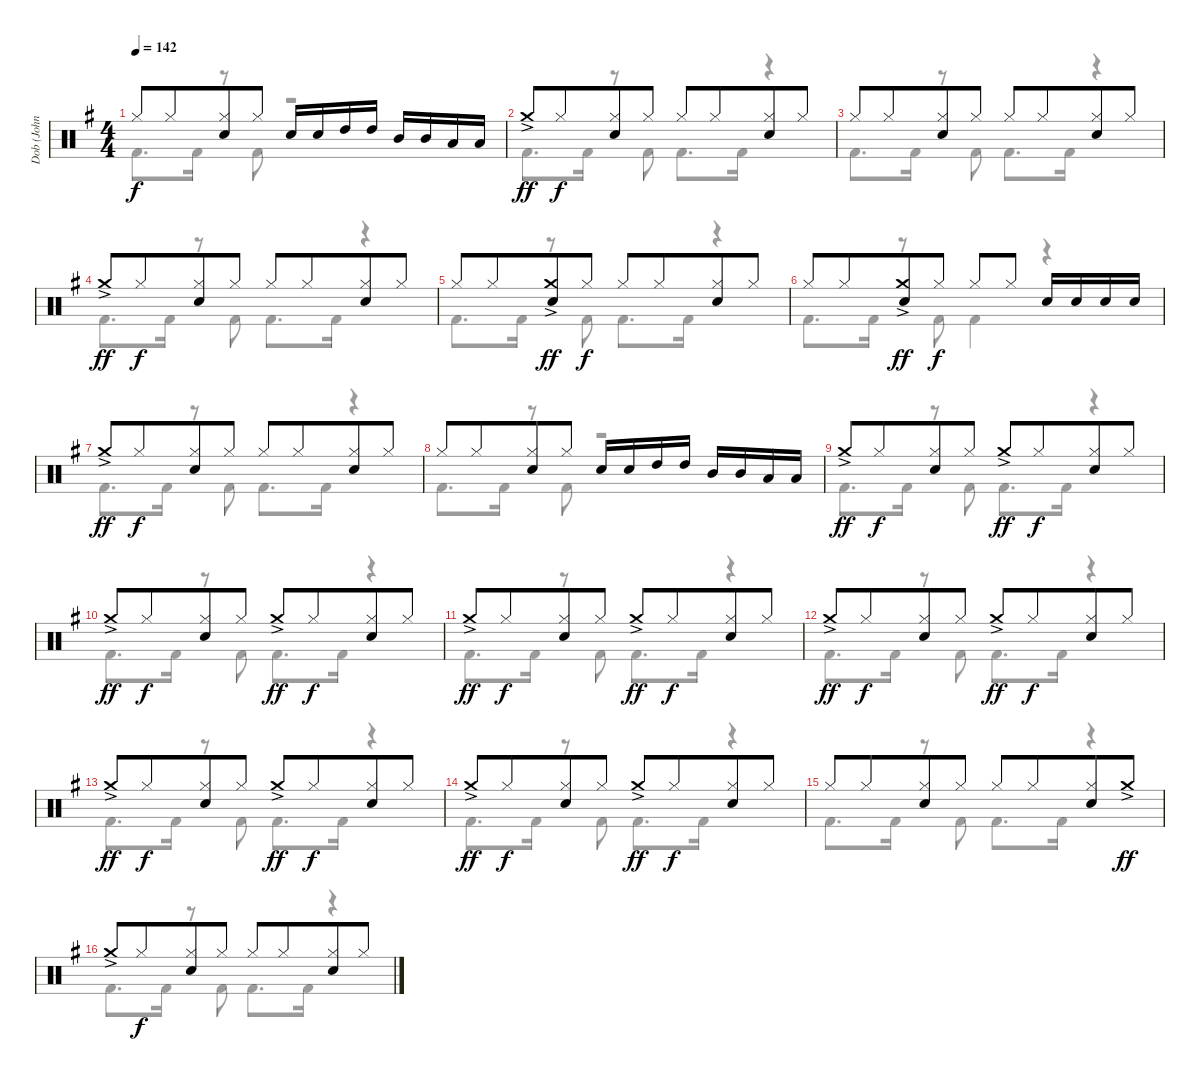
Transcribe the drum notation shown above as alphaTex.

\track ("Dob (John O'Reilly)" "Dob (John ") {instrument percussion}
\staff {score}
\articulation defaults
\voice
\ts (4 4)
\tempo 142
\clef neutral
\ks g "Hi-Hat (closed)".8{dy f} "Hi-Hat (closed)".8{beam merge}
("Hi-Hat (closed)" "Electric Snare (hit)").8 "Hi-Hat (closed)".8 "Electric Snare (hit)".16 "Electric Snare (hit)".16 "High Tom (hit)".16 "High Tom (hit)".16 "Mid Tom (hit)".16 "Mid Tom (hit)".16 "Low Tom (hit)".16 "Low Tom (hit)".16 |
"Crash medium (hit)"{ac}.8{dy ff} "Hi-Hat (closed)".8{dy f beam merge} ("Hi-Hat (closed)" "Electric Snare (hit)").8 "Hi-Hat (closed)".8 "Hi-Hat (closed)".8 "Hi-Hat (closed)".8{beam merge} ("Hi-Hat (closed)" "Electric Snare (hit)").8 "Hi-Hat (closed)".8 |
"Hi-Hat (closed)".8 "Hi-Hat (closed)".8{beam merge} ("Hi-Hat (closed)" "Electric Snare (hit)").8 "Hi-Hat (closed)".8 "Hi-Hat (closed)".8 "Hi-Hat (closed)".8{beam merge} ("Hi-Hat (closed)" "Electric Snare (hit)").8 "Hi-Hat (closed)".8 |
"Crash medium (hit)"{ac}.8{dy ff} "Hi-Hat (closed)".8{dy f beam merge} ("Hi-Hat (closed)" "Electric Snare (hit)").8 "Hi-Hat (closed)".8 "Hi-Hat (closed)".8 "Hi-Hat (closed)".8{beam merge} ("Hi-Hat (closed)" "Electric Snare (hit)").8 "Hi-Hat (closed)".8 |
"Hi-Hat (closed)".8 "Hi-Hat (closed)".8{beam merge} ("Crash medium (hit)"{ac} "Electric Snare (hit)").8{dy ff} "Hi-Hat (closed)".8{dy f} "Hi-Hat (closed)".8 "Hi-Hat (closed)".8{beam merge} ("Hi-Hat (closed)" "Electric Snare (hit)").8 "Hi-Hat (closed)".8 |
"Hi-Hat (closed)".8 "Hi-Hat (closed)".8{beam merge} ("Crash medium (hit)"{ac} "Electric Snare (hit)").8{dy ff} "Hi-Hat (closed)".8{dy f} "Hi-Hat (closed)".8 "Hi-Hat (closed)".8 "Electric Snare (hit)".16 "Electric Snare (hit)".16 "Electric Snare (hit)".16 "Electric Snare (hit)".16 |
"Crash medium (hit)"{ac}.8{dy ff} "Hi-Hat (closed)".8{dy f beam merge} ("Hi-Hat (closed)" "Electric Snare (hit)").8 "Hi-Hat (closed)".8 "Hi-Hat (closed)".8 "Hi-Hat (closed)".8{beam merge} ("Hi-Hat (closed)" "Electric Snare (hit)").8 "Hi-Hat (closed)".8 |
"Hi-Hat (closed)".8 "Hi-Hat (closed)".8{beam merge} ("Hi-Hat (closed)" "Electric Snare (hit)").8 "Hi-Hat (closed)".8 "Electric Snare (hit)".16 "Electric Snare (hit)".16 "High Tom (hit)".16 "High Tom (hit)".16 "Mid Tom (hit)".16 "Mid Tom (hit)".16 "Low Tom (hit)".16 "Low Tom (hit)".16 |
"Crash medium (hit)"{ac}.8{dy ff} "Hi-Hat (closed)".8{dy f beam merge} ("Hi-Hat (closed)" "Electric Snare (hit)").8 "Hi-Hat (closed)".8 "Crash medium (hit)"{ac}.8{dy ff} "Hi-Hat (closed)".8{dy f beam merge} ("Hi-Hat (closed)" "Electric Snare (hit)").8 "Hi-Hat (closed)".8 |
"Crash medium (hit)"{ac}.8{dy ff} "Hi-Hat (closed)".8{dy f beam merge} ("Hi-Hat (closed)" "Electric Snare (hit)").8 "Hi-Hat (closed)".8 "Crash medium (hit)"{ac}.8{dy ff} "Hi-Hat (closed)".8{dy f beam merge} ("Hi-Hat (closed)" "Electric Snare (hit)").8 "Hi-Hat (closed)".8 |
"Crash medium (hit)"{ac}.8{dy ff} "Hi-Hat (closed)".8{dy f beam merge} ("Hi-Hat (closed)" "Electric Snare (hit)").8 "Hi-Hat (closed)".8 "Crash medium (hit)"{ac}.8{dy ff} "Hi-Hat (closed)".8{dy f beam merge} ("Hi-Hat (closed)" "Electric Snare (hit)").8 "Hi-Hat (closed)".8 |
"Crash medium (hit)"{ac}.8{dy ff} "Hi-Hat (closed)".8{dy f beam merge} ("Hi-Hat (closed)" "Electric Snare (hit)").8 "Hi-Hat (closed)".8 "Crash medium (hit)"{ac}.8{dy ff} "Hi-Hat (closed)".8{dy f beam merge} ("Hi-Hat (closed)" "Electric Snare (hit)").8 "Hi-Hat (closed)".8 |
"Crash medium (hit)"{ac}.8{dy ff} "Hi-Hat (closed)".8{dy f beam merge} ("Hi-Hat (closed)" "Electric Snare (hit)").8 "Hi-Hat (closed)".8 "Crash medium (hit)"{ac}.8{dy ff} "Hi-Hat (closed)".8{dy f beam merge} ("Hi-Hat (closed)" "Electric Snare (hit)").8 "Hi-Hat (closed)".8 |
"Crash medium (hit)"{ac}.8{dy ff} "Hi-Hat (closed)".8{dy f beam merge} ("Hi-Hat (closed)" "Electric Snare (hit)").8 "Hi-Hat (closed)".8 "Crash medium (hit)"{ac}.8{dy ff} "Hi-Hat (closed)".8{dy f beam merge} ("Hi-Hat (closed)" "Electric Snare (hit)").8 "Hi-Hat (closed)".8 |
"Hi-Hat (closed)".8 "Hi-Hat (closed)".8{beam merge} ("Hi-Hat (closed)" "Electric Snare (hit)").8 "Hi-Hat (closed)".8 "Hi-Hat (closed)".8 "Hi-Hat (closed)".8{beam merge} ("Hi-Hat (closed)" "Electric Snare (hit)").8 "Crash medium (hit)"{ac}.8{dy ff} |
"Crash medium (hit)"{ac}.8 "Hi-Hat (closed)".8{dy f beam merge} ("Hi-Hat (closed)" "Electric Snare (hit)").8 "Hi-Hat (closed)".8 "Hi-Hat (closed)".8 "Hi-Hat (closed)".8{beam merge} ("Hi-Hat (closed)" "Electric Snare (hit)").8 "Hi-Hat (closed)".8
\voice
\clef neutral
\ottava regular
\simile none
\ks g "Kick (hit) 2".8{d dy f} "Kick (hit) 2".16
r.8 "Kick (hit) 2".8 r.2 |
"Kick (hit) 2".8{d} "Kick (hit) 2".16 r.8 "Kick (hit) 2".8 "Kick (hit) 2".8{d} "Kick (hit) 2".16 r.4 |
"Kick (hit) 2".8{d} "Kick (hit) 2".16 r.8 "Kick (hit) 2".8 "Kick (hit) 2".8{d} "Kick (hit) 2".16 r.4 |
"Kick (hit) 2".8{d} "Kick (hit) 2".16 r.8 "Kick (hit) 2".8 "Kick (hit) 2".8{d} "Kick (hit) 2".16 r.4 |
"Kick (hit) 2".8{d} "Kick (hit) 2".16 r.8 "Kick (hit) 2".8 "Kick (hit) 2".8{d} "Kick (hit) 2".16 r.4 |
"Kick (hit) 2".8{d} "Kick (hit) 2".16 r.8 "Kick (hit) 2".8 "Kick (hit) 2".4 r.4 |
"Kick (hit) 2".8{d} "Kick (hit) 2".16 r.8 "Kick (hit) 2".8 "Kick (hit) 2".8{d} "Kick (hit) 2".16 r.4 |
"Kick (hit) 2".8{d} "Kick (hit) 2".16 r.8 "Kick (hit) 2".8 r.2 |
"Kick (hit) 2".8{d} "Kick (hit) 2".16 r.8 "Kick (hit) 2".8 "Kick (hit) 2".8{d} "Kick (hit) 2".16 r.4 |
"Kick (hit) 2".8{d} "Kick (hit) 2".16 r.8 "Kick (hit) 2".8 "Kick (hit) 2".8{d} "Kick (hit) 2".16 r.4 |
"Kick (hit) 2".8{d} "Kick (hit) 2".16 r.8 "Kick (hit) 2".8 "Kick (hit) 2".8{d} "Kick (hit) 2".16 r.4 |
"Kick (hit) 2".8{d} "Kick (hit) 2".16 r.8 "Kick (hit) 2".8 "Kick (hit) 2".8{d} "Kick (hit) 2".16 r.4 |
"Kick (hit) 2".8{d} "Kick (hit) 2".16 r.8 "Kick (hit) 2".8 "Kick (hit) 2".8{d} "Kick (hit) 2".16 r.4 |
"Kick (hit) 2".8{d} "Kick (hit) 2".16 r.8 "Kick (hit) 2".8 "Kick (hit) 2".8{d} "Kick (hit) 2".16 r.4 |
"Kick (hit) 2".8{d} "Kick (hit) 2".16 r.8 "Kick (hit) 2".8 "Kick (hit) 2".8{d} "Kick (hit) 2".16 r.4 |
"Kick (hit) 2".8{d} "Kick (hit) 2".16 r.8 "Kick (hit) 2".8 "Kick (hit) 2".8{d} "Kick (hit) 2".16 r.4
